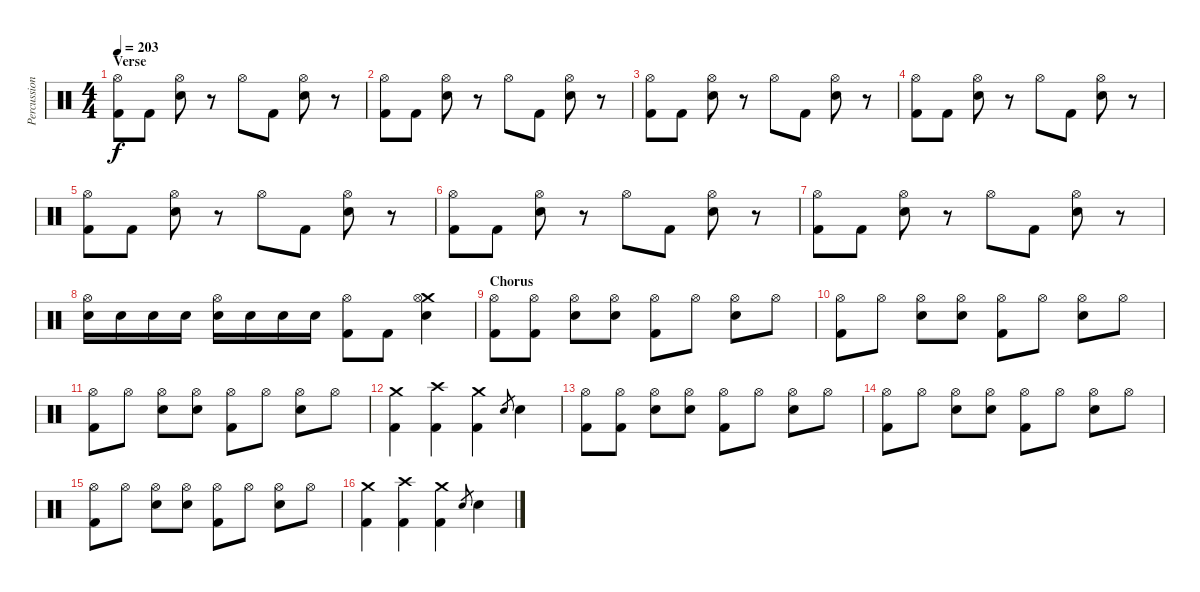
\track ("Percussion" "Percussion") {instrument percussion}
\staff {score}
\articulation defaults
\ts (4 4)
\section ("" "Verse")
\tempo 203
\clef neutral
\ks c
("Hi-Hat (open)" "Kick (hit) 2").8{dy f} "Kick (hit) 2".8 ("Hi-Hat (open)" "Electric Snare (hit)").8 r.8 "Hi-Hat (open)".8 "Kick (hit) 2".8 ("Hi-Hat (open)" "Electric Snare (hit)").8 r.8 |
("Hi-Hat (open)" "Kick (hit) 2").8 "Kick (hit) 2".8 ("Hi-Hat (open)" "Electric Snare (hit)").8 r.8 "Hi-Hat (open)".8 "Kick (hit) 2".8 ("Hi-Hat (open)" "Electric Snare (hit)").8 r.8 |
("Hi-Hat (open)" "Kick (hit) 2").8 "Kick (hit) 2".8 ("Hi-Hat (open)" "Electric Snare (hit)").8 r.8 "Hi-Hat (open)".8 "Kick (hit) 2".8 ("Hi-Hat (open)" "Electric Snare (hit)").8 r.8 |
("Hi-Hat (open)" "Kick (hit) 2").8 "Kick (hit) 2".8 ("Hi-Hat (open)" "Electric Snare (hit)").8 r.8 "Hi-Hat (open)".8 "Kick (hit) 2".8 ("Hi-Hat (open)" "Electric Snare (hit)").8 r.8 |
("Hi-Hat (open)" "Kick (hit) 2").8 "Kick (hit) 2".8 ("Hi-Hat (open)" "Electric Snare (hit)").8 r.8 "Hi-Hat (open)".8 "Kick (hit) 2".8 ("Hi-Hat (open)" "Electric Snare (hit)").8 r.8 |
("Hi-Hat (open)" "Kick (hit) 2").8 "Kick (hit) 2".8 ("Hi-Hat (open)" "Electric Snare (hit)").8 r.8 "Hi-Hat (open)".8 "Kick (hit) 2".8 ("Hi-Hat (open)" "Electric Snare (hit)").8 r.8 |
("Hi-Hat (open)" "Kick (hit) 2").8 "Kick (hit) 2".8 ("Hi-Hat (open)" "Electric Snare (hit)").8 r.8 "Hi-Hat (open)".8 "Kick (hit) 2".8 ("Hi-Hat (open)" "Electric Snare (hit)").8 r.8 |
("Hi-Hat (open)" "Electric Snare (hit)").16 "Electric Snare (hit)".16 "Electric Snare (hit)".16 "Electric Snare (hit)".16 ("Hi-Hat (open)" "Electric Snare (hit)").16 "Electric Snare (hit)".16 "Electric Snare (hit)".16 "Electric Snare (hit)".16 ("Hi-Hat (open)" "Kick (hit) 2").8 "Kick (hit) 2".8 ("Crash medium (hit)" "Hi-Hat (open)" "Electric Snare (hit)").4 |
\section ("" "Chorus")
("Hi-Hat (open)" "Kick (hit) 2").8 ("Hi-Hat (open)" "Kick (hit) 2").8 ("Hi-Hat (open)" "Electric Snare (hit)").8 ("Hi-Hat (open)" "Electric Snare (hit)").8 ("Hi-Hat (open)" "Kick (hit) 2").8 "Hi-Hat (open)".8 ("Hi-Hat (open)" "Electric Snare (hit)").8 "Hi-Hat (open)".8 |
("Hi-Hat (open)" "Kick (hit) 2").8 "Hi-Hat (open)".8 ("Hi-Hat (open)" "Electric Snare (hit)").8 ("Hi-Hat (open)" "Electric Snare (hit)").8 ("Hi-Hat (open)" "Kick (hit) 2").8 "Hi-Hat (open)".8 ("Hi-Hat (open)" "Electric Snare (hit)").8 "Hi-Hat (open)".8 |
("Hi-Hat (open)" "Kick (hit) 2").8 "Hi-Hat (open)".8 ("Hi-Hat (open)" "Electric Snare (hit)").8 ("Hi-Hat (open)" "Electric Snare (hit)").8 ("Hi-Hat (open)" "Kick (hit) 2").8 "Hi-Hat (open)".8 ("Hi-Hat (open)" "Electric Snare (hit)").8 "Hi-Hat (open)".8 |
("Crash medium (hit)" "Kick (hit) 2").4 ("Crash high (hit)" "Kick (hit) 2").4 ("Crash medium (hit)" "Kick (hit) 2").4 "Electric Snare (hit)".8{gr} "Electric Snare (hit)".4 |
("Hi-Hat (open)" "Kick (hit) 2").8 ("Hi-Hat (open)" "Kick (hit) 2").8 ("Hi-Hat (open)" "Electric Snare (hit)").8 ("Hi-Hat (open)" "Electric Snare (hit)").8 ("Hi-Hat (open)" "Kick (hit) 2").8 "Hi-Hat (open)".8 ("Hi-Hat (open)" "Electric Snare (hit)").8 "Hi-Hat (open)".8 |
("Hi-Hat (open)" "Kick (hit) 2").8 "Hi-Hat (open)".8 ("Hi-Hat (open)" "Electric Snare (hit)").8 ("Hi-Hat (open)" "Electric Snare (hit)").8 ("Hi-Hat (open)" "Kick (hit) 2").8 "Hi-Hat (open)".8 ("Hi-Hat (open)" "Electric Snare (hit)").8 "Hi-Hat (open)".8 |
("Hi-Hat (open)" "Kick (hit) 2").8 "Hi-Hat (open)".8 ("Hi-Hat (open)" "Electric Snare (hit)").8 ("Hi-Hat (open)" "Electric Snare (hit)").8 ("Hi-Hat (open)" "Kick (hit) 2").8 "Hi-Hat (open)".8 ("Hi-Hat (open)" "Electric Snare (hit)").8 "Hi-Hat (open)".8 |
("Crash medium (hit)" "Kick (hit) 2").4 ("Crash high (hit)" "Kick (hit) 2").4 ("Crash medium (hit)" "Kick (hit) 2").4 "Electric Snare (hit)".8{gr} "Electric Snare (hit)".4
